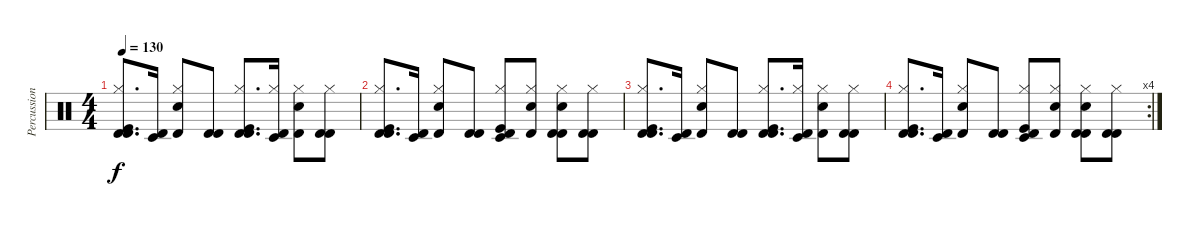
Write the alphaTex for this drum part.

\track ("Percussion" "Percussion") {instrument percussion}
\staff {score}
\articulation defaults
\ts (4 4)
\tempo 130
\clef neutral
\ks c
("Timbale high (hit)" "Hi-Hat (closed)" "Timbale high (hit)" "Kick (hit)").8{d dy f} ("Timbale low (hit)" "Timbale high (hit)").16 ("Timbale high (hit)" "Hi-Hat (closed)" "Hand Clap (hit)").8 ("Timbale high (hit)" "Timbale high (hit)").8 ("Timbale high (hit)" "Hi-Hat (closed)" "Timbale high (hit)" "Kick (hit)").8{d} ("Timbale low (hit)" "Hi-Hat (closed)" "Timbale high (hit)").16 ("Timbale high (hit)" "Hi-Hat (closed)" "Hand Clap (hit)").8 ("Timbale high (hit)" "Hi-Hat (closed)" "Timbale high (hit)").8 |
("Timbale high (hit)" "Hi-Hat (closed)" "Timbale high (hit)" "Kick (hit)").8{d} ("Timbale low (hit)" "Timbale high (hit)").16 ("Timbale high (hit)" "Hi-Hat (closed)" "Hand Clap (hit)").8 ("Timbale high (hit)" "Timbale high (hit)").8 ("Timbale low (hit)" "Hi-Hat (closed)" "Timbale high (hit)" "Kick (hit)").8 ("Timbale high (hit)" "Hi-Hat (closed)" "Hand Clap (hit)").8 ("Timbale high (hit)" "Hi-Hat (closed)" "Timbale high (hit)" "Hand Clap (hit)").8 ("Timbale high (hit)" "Hi-Hat (closed)" "Timbale high (hit)").8 |
("Timbale high (hit)" "Hi-Hat (closed)" "Timbale high (hit)" "Kick (hit)").8{d} ("Timbale low (hit)" "Timbale high (hit)").16 ("Timbale high (hit)" "Hi-Hat (closed)" "Hand Clap (hit)").8 ("Timbale high (hit)" "Timbale high (hit)").8 ("Timbale high (hit)" "Hi-Hat (closed)" "Timbale high (hit)" "Kick (hit)").8{d} ("Timbale low (hit)" "Hi-Hat (closed)" "Timbale high (hit)").16 ("Timbale high (hit)" "Hi-Hat (closed)" "Hand Clap (hit)").8 ("Timbale high (hit)" "Hi-Hat (closed)" "Timbale high (hit)").8 |
\rc 4
("Timbale high (hit)" "Hi-Hat (closed)" "Timbale high (hit)" "Kick (hit)").8{d} ("Timbale low (hit)" "Timbale high (hit)").16 ("Timbale high (hit)" "Hi-Hat (closed)" "Hand Clap (hit)").8 ("Timbale high (hit)" "Timbale high (hit)").8 ("Timbale low (hit)" "Hi-Hat (closed)" "Timbale high (hit)" "Kick (hit)").8 ("Timbale high (hit)" "Hi-Hat (closed)" "Hand Clap (hit)").8 ("Timbale high (hit)" "Hi-Hat (closed)" "Timbale high (hit)" "Hand Clap (hit)").8 ("Timbale high (hit)" "Hi-Hat (closed)" "Timbale high (hit)").8
